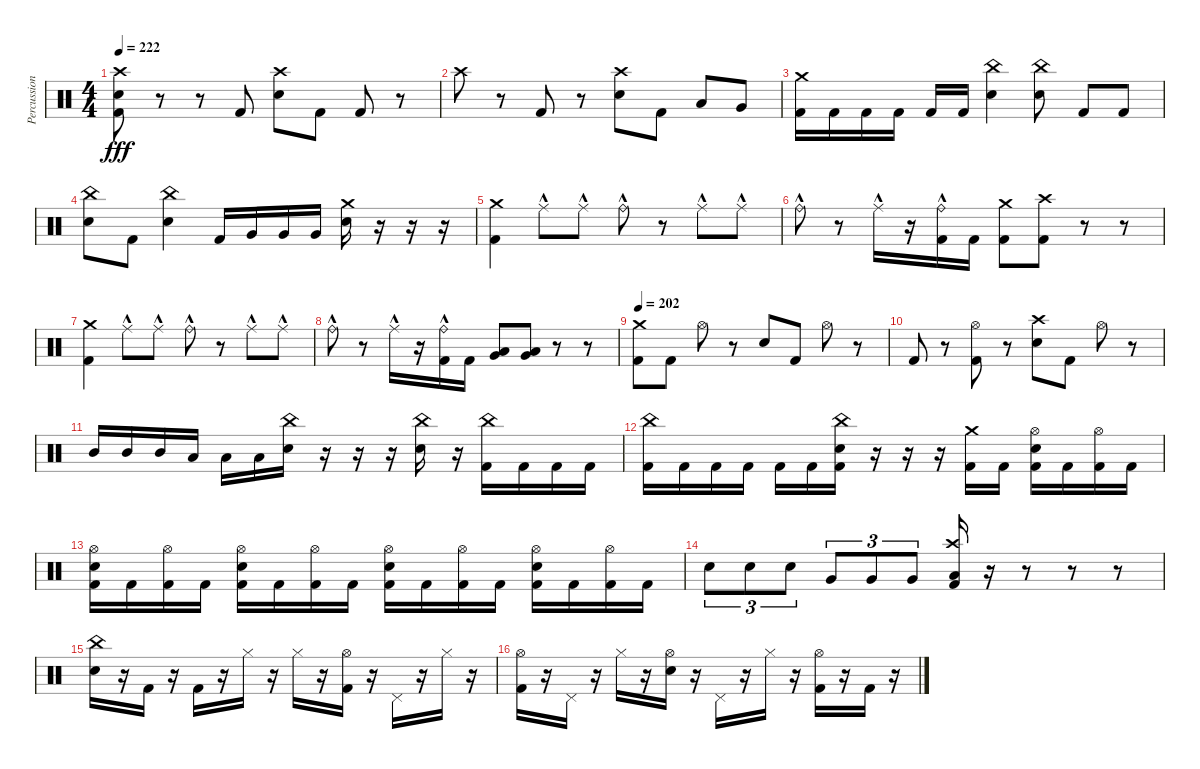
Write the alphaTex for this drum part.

\track ("Percussion" "Percussion") {instrument percussion}
\staff {score}
\articulation defaults
\ts (4 4)
\tempo 222
\clef neutral
\ks c
("Kick (hit) 2" "Electric Snare (hit)" "Crash high (hit)").8{dy fff} r.8 r.8 "Kick (hit) 2".8 ("Electric Snare (hit)" "Crash high (hit)").8 "Kick (hit) 2".8 "Kick (hit) 2".8 r.8 |
"Crash high (hit)".8 r.8 "Kick (hit) 2".8 r.8 ("Electric Snare (hit)" "Crash high (hit)").8 "Kick (hit) 2".8 "Low Floor Tom (hit)".8 "Very Low Tom (hit)".8 |
("Kick (hit) 2" "Crash medium (hit)").16 "Kick (hit) 2".16 "Kick (hit) 2".16 "Kick (hit) 2".16 "Kick (hit) 2".16 "Kick (hit) 2".16 ("Electric Snare (hit)" "China (hit)").4 ("Electric Snare (hit)" "China (hit)").8 "Kick (hit) 2".8 "Kick (hit) 2".8 |
("Electric Snare (hit)" "China (hit)").8 "Kick (hit) 2".8 ("Electric Snare (hit)" "China (hit)").4 "Kick (hit) 2".16 "Very Low Tom (hit)".16 "Very Low Tom (hit)".16 "Very Low Tom (hit)".16 ("Electric Snare (hit)" "Crash medium (hit)").16 r.16 r.16 r.16 |
("Kick (hit) 2" "Crash medium (hit)").4 "Ride (middle)"{hac}.8 "Ride (middle)"{hac}.8 "Ride (bell)"{hac}.8 r.8 "Ride (middle)"{hac}.8 "Ride (middle)"{hac}.8 |
"Ride (bell)"{hac}.8 r.8 "Ride (middle)"{hac}.16 r.16 ("Kick (hit) 2" "Ride (bell)"{hac}).16 "Kick (hit) 2".16 ("Kick (hit) 2" "Crash medium (hit)").8 ("Kick (hit) 2" "Crash high (hit)").8 r.8 r.8 |
("Kick (hit) 2" "Crash medium (hit)").4 "Ride (middle)"{hac}.8 "Ride (middle)"{hac}.8 "Ride (bell)"{hac}.8 r.8 "Ride (middle)"{hac}.8 "Ride (middle)"{hac}.8 |
"Ride (bell)"{hac}.8 r.8 "Ride (middle)"{hac}.16 r.16 ("Kick (hit) 2" "Ride (bell)"{hac}).16 "Kick (hit) 2".16 ("Very Low Tom (hit)" "Low Floor Tom (hit)").8 ("Very Low Tom (hit)" "Low Floor Tom (hit)").8 r.8 r.8 |
\tempo 202
("Kick (hit) 2" "Crash medium (hit)").8 "Kick (hit) 2".8 "Hi-Hat (open)".8 r.8 "Electric Snare (hit)".8 "Kick (hit) 2".8 "Hi-Hat (open)".8 r.8 |
"Kick (hit) 2".8 r.8 ("Kick (hit) 2" "Hi-Hat (open)").8 r.8 ("Electric Snare (hit)" "Crash high (hit)").8 "Kick (hit) 2".8 "Hi-Hat (open)".8 r.8 |
"Mid Tom (hit)".16 "Mid Tom (hit)".16 "Mid Tom (hit)".16 "Low Tom (hit)".16 "Low Tom (hit)".16 "Low Tom (hit)".16 ("Electric Snare (hit)" "China (hit)").16 r.16 r.16 r.16 ("Electric Snare (hit)" "China (hit)").16 r.16 ("Kick (hit) 2" "China (hit)").16 "Kick (hit) 2".16 "Kick (hit) 2".16 "Kick (hit) 2".16 |
("Kick (hit) 2" "China (hit)").16 "Kick (hit) 2".16 "Kick (hit) 2".16 "Kick (hit) 2".16 "Kick (hit) 2".16 "Kick (hit) 2".16 ("Kick (hit) 2" "Electric Snare (hit)" "China (hit)").16 r.16 r.16 r.16 ("Kick (hit) 2" "Crash medium (hit)").16 "Kick (hit) 2".16 ("Kick (hit) 2" "Electric Snare (hit)" "Hi-Hat (open)").16 "Kick (hit) 2".16 ("Kick (hit) 2" "Hi-Hat (open)").16 "Kick (hit) 2".16 |
("Kick (hit) 2" "Electric Snare (hit)" "Hi-Hat (open)").16 "Kick (hit) 2".16 ("Kick (hit) 2" "Hi-Hat (open)").16 "Kick (hit) 2".16 ("Kick (hit) 2" "Electric Snare (hit)" "Hi-Hat (open)").16 "Kick (hit) 2".16 ("Kick (hit) 2" "Hi-Hat (open)").16 "Kick (hit) 2".16 ("Kick (hit) 2" "Electric Snare (hit)" "Hi-Hat (open)").16 "Kick (hit) 2".16 ("Kick (hit) 2" "Hi-Hat (open)").16 "Kick (hit) 2".16 ("Kick (hit) 2" "Electric Snare (hit)" "Hi-Hat (open)").16 "Kick (hit) 2".16 ("Kick (hit) 2" "Hi-Hat (open)").16 "Kick (hit) 2".16 |
"Electric Snare (hit)".8{tu (3 2)} "Electric Snare (hit)".8{tu (3 2)} "Electric Snare (hit)".8{tu (3 2)} "Very Low Tom (hit)".8{tu (3 2)} "Very Low Tom (hit)".8{tu (3 2)} "Very Low Tom (hit)".8{tu (3 2)} ("Kick (hit) 2" "Low Floor Tom (hit)" "Crash high (hit)").16 r.16 r.8 r.8 r.8 |
("Electric Snare (hit)" "China (hit)").16 r.16 "Kick (hit) 2".16 r.16 "Kick (hit) 2".16 r.16 "Hi-Hat (closed)".16 r.16 "Hi-Hat (closed)".16 r.16 ("Kick (hit) 2" "Hi-Hat (open)").16 r.16 "Pedal Hi-Hat (hit)".16 r.16 "Hi-Hat (closed)".16 r.16 |
("Kick (hit) 2" "Hi-Hat (open)").16 r.16 "Pedal Hi-Hat (hit)".16 r.16 "Hi-Hat (closed)".16 r.16 ("Electric Snare (hit)" "Hi-Hat (open)").16 r.16 "Pedal Hi-Hat (hit)".16 r.16 "Hi-Hat (closed)".16 r.16 ("Kick (hit) 2" "Hi-Hat (open)").16 r.16 "Kick (hit) 2".16 r.16
